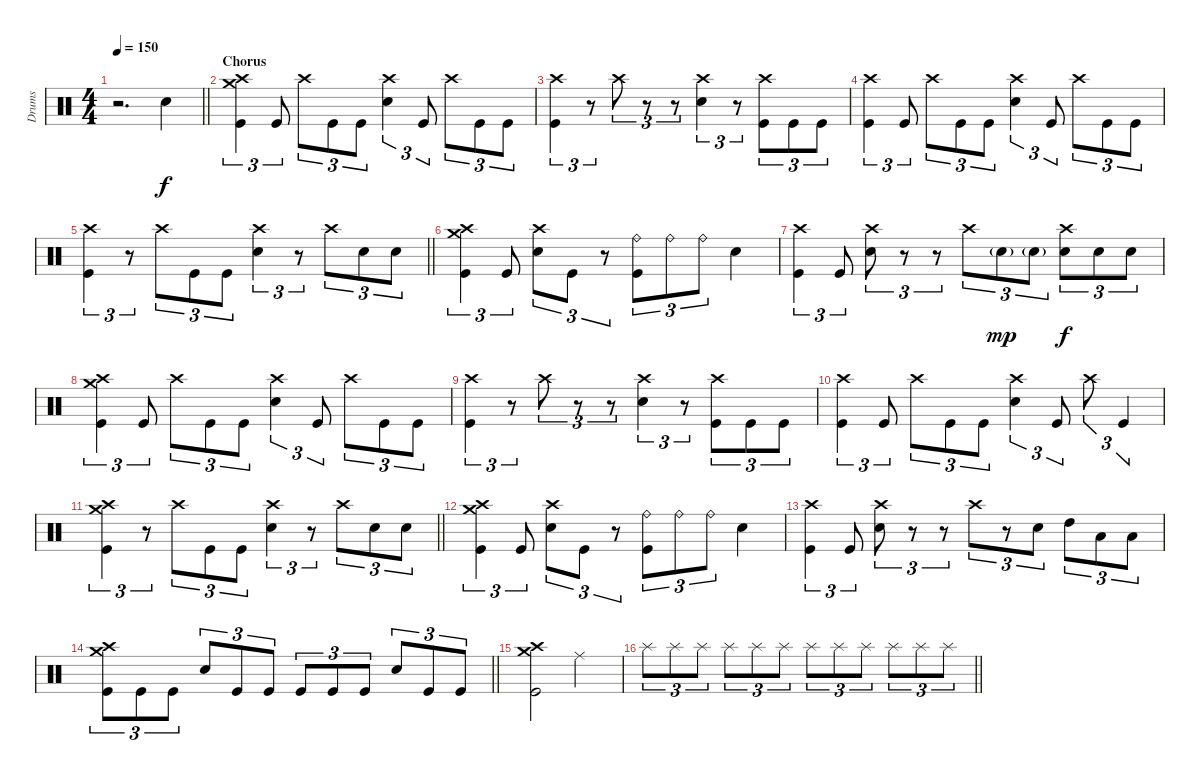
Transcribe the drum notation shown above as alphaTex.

\track ("Drums" "Drums") {instrument percussion}
\staff {score}
\articulation defaults
\ts (4 4)
\tempo 150
\clef neutral
\barLineRight lightlight
\ks c
r.2{d dy f} "Electric Snare (hit)".4 |
\section ("" "Chorus")
("Crash high (hit)" "Crash medium (hit)" "Kick (hit)").4{tu (3 2)} "Kick (hit)".8{tu (3 2)} "Crash high (hit)".8{tu (3 2)} "Kick (hit)".8{tu (3 2)} "Kick (hit)".8{tu (3 2)} ("Crash high (hit)" "Electric Snare (hit)").4{tu (3 2)} "Kick (hit)".8{tu (3 2)} "Crash high (hit)".8{tu (3 2)} "Kick (hit)".8{tu (3 2)} "Kick (hit)".8{tu (3 2)} |
("Crash high (hit)" "Kick (hit)").4{tu (3 2)} r.8{tu (3 2)} "Crash high (hit)".8{tu (3 2)} r.8{tu (3 2)} r.8{tu (3 2)} ("Crash high (hit)" "Electric Snare (hit)").4{tu (3 2)} r.8{tu (3 2)} ("Crash high (hit)" "Kick (hit)").8{tu (3 2)} "Kick (hit)".8{tu (3 2)} "Kick (hit)".8{tu (3 2)} |
("Crash high (hit)" "Kick (hit)").4{tu (3 2)} "Kick (hit)".8{tu (3 2)} "Crash high (hit)".8{tu (3 2)} "Kick (hit)".8{tu (3 2)} "Kick (hit)".8{tu (3 2)} ("Crash high (hit)" "Electric Snare (hit)").4{tu (3 2)} "Kick (hit)".8{tu (3 2)} "Crash high (hit)".8{tu (3 2)} "Kick (hit)".8{tu (3 2)} "Kick (hit)".8{tu (3 2)} |
\barLineRight lightlight
("Crash high (hit)" "Kick (hit)").4{tu (3 2)} r.8{tu (3 2)} "Crash high (hit)".8{tu (3 2)} "Kick (hit)".8{tu (3 2)} "Kick (hit)".8{tu (3 2)} ("Crash high (hit)" "Electric Snare (hit)").4{tu (3 2)} r.8{tu (3 2)} "Crash high (hit)".8{tu (3 2)} "Electric Snare (hit)".8{tu (3 2)} "Electric Snare (hit)".8{tu (3 2)} |
("Crash high (hit)" "Crash medium (hit)" "Kick (hit)").4{tu (3 2)} "Kick (hit)".8{tu (3 2)} ("Crash high (hit)" "Electric Snare (hit)").8{tu (3 2)} "Kick (hit)".8{tu (3 2)} r.8{tu (3 2)} ("Ride (bell)" "Kick (hit)").8{tu (3 2)} "Ride (bell)".8{tu (3 2)} "Ride (bell)".8{tu (3 2)} "Electric Snare (hit)".4 |
("Crash high (hit)" "Kick (hit)").4{tu (3 2)} "Kick (hit)".8{tu (3 2)} ("Crash high (hit)" "Electric Snare (hit)").8{tu (3 2)} r.8{tu (3 2)} r.8{tu (3 2)} "Crash high (hit)".8{tu (3 2)} "Electric Snare (hit)"{g}.8{tu (3 2) dy mp} "Electric Snare (hit)"{g}.8{tu (3 2)} ("Crash high (hit)" "Electric Snare (hit)").8{tu (3 2) dy f} "Electric Snare (hit)".8{tu (3 2)} "Electric Snare (hit)".8{tu (3 2)} |
("Crash high (hit)" "Crash medium (hit)" "Kick (hit)").4{tu (3 2)} "Kick (hit)".8{tu (3 2)} "Crash high (hit)".8{tu (3 2)} "Kick (hit)".8{tu (3 2)} "Kick (hit)".8{tu (3 2)} ("Crash high (hit)" "Electric Snare (hit)").4{tu (3 2)} "Kick (hit)".8{tu (3 2)} "Crash high (hit)".8{tu (3 2)} "Kick (hit)".8{tu (3 2)} "Kick (hit)".8{tu (3 2)} |
("Crash high (hit)" "Kick (hit)").4{tu (3 2)} r.8{tu (3 2)} "Crash high (hit)".8{tu (3 2)} r.8{tu (3 2)} r.8{tu (3 2)} ("Crash high (hit)" "Electric Snare (hit)").4{tu (3 2)} r.8{tu (3 2)} ("Crash high (hit)" "Kick (hit)").8{tu (3 2)} "Kick (hit)".8{tu (3 2)} "Kick (hit)".8{tu (3 2)} |
("Crash high (hit)" "Kick (hit)").4{tu (3 2)} "Kick (hit)".8{tu (3 2)} "Crash high (hit)".8{tu (3 2)} "Kick (hit)".8{tu (3 2)} "Kick (hit)".8{tu (3 2)} ("Crash high (hit)" "Electric Snare (hit)").4{tu (3 2)} "Kick (hit)".8{tu (3 2)} "Crash high (hit)".8{tu (3 2)} "Kick (hit)".4{tu (3 2)} |
\barLineRight lightlight
("Crash high (hit)" "Crash medium (hit)" "Kick (hit)").4{tu (3 2)} r.8{tu (3 2)} "Crash high (hit)".8{tu (3 2)} "Kick (hit)".8{tu (3 2)} "Kick (hit)".8{tu (3 2)} ("Crash high (hit)" "Electric Snare (hit)").4{tu (3 2)} r.8{tu (3 2)} "Crash high (hit)".8{tu (3 2)} "Electric Snare (hit)".8{tu (3 2)} "Electric Snare (hit)".8{tu (3 2)} |
("Crash high (hit)" "Crash medium (hit)" "Kick (hit)").4{tu (3 2)} "Kick (hit)".8{tu (3 2)} ("Crash high (hit)" "Electric Snare (hit)").8{tu (3 2)} "Kick (hit)".8{tu (3 2)} r.8{tu (3 2)} ("Ride (bell)" "Kick (hit)").8{tu (3 2)} "Ride (bell)".8{tu (3 2)} "Ride (bell)".8{tu (3 2)} "Electric Snare (hit)".4 |
("Crash high (hit)" "Kick (hit)").4{tu (3 2)} "Kick (hit)".8{tu (3 2)} ("Crash high (hit)" "Electric Snare (hit)").8{tu (3 2)} r.8{tu (3 2)} r.8{tu (3 2)} "Crash high (hit)".8{tu (3 2)} r.8{tu (3 2)} "Electric Snare (hit)".8{tu (3 2)} "High Tom (hit)".8{tu (3 2)} "Low Tom (hit)".8{tu (3 2)} "Low Floor Tom (hit)".8{tu (3 2)} |
\barLineRight lightlight
("Crash high (hit)" "Crash medium (hit)" "Kick (hit)").8{tu (3 2)} "Kick (hit)".8{tu (3 2)} "Kick (hit)".8{tu (3 2)} "Electric Snare (hit)".8{tu (3 2)} "Kick (hit)".8{tu (3 2)} "Kick (hit)".8{tu (3 2)} "Kick (hit)".8{tu (3 2)} "Kick (hit)".8{tu (3 2)} "Kick (hit)".8{tu (3 2)} "Electric Snare (hit)".8{tu (3 2)} "Kick (hit)".8{tu (3 2)} "Kick (hit)".8{tu (3 2)} |
("Crash high (hit)" "Crash medium (hit)" "Kick (hit)").2 "Ride (middle)".2 |
\barLineRight lightlight "Splash (hit)".8{tu (3 2)} "Splash (hit)".8{tu (3 2)} "Splash (hit)".8{tu (3 2)} "Splash (hit)".8{tu (3 2)} "Splash (hit)".8{tu (3 2)} "Splash (hit)".8{tu (3 2)} "Splash (hit)".8{tu (3 2)} "Splash (hit)".8{tu (3 2)} "Splash (hit)".8{tu (3 2)} "Splash (hit)".8{tu (3 2)} "Splash (hit)".8{tu (3 2)} "Splash (hit)".8{tu (3 2)}
